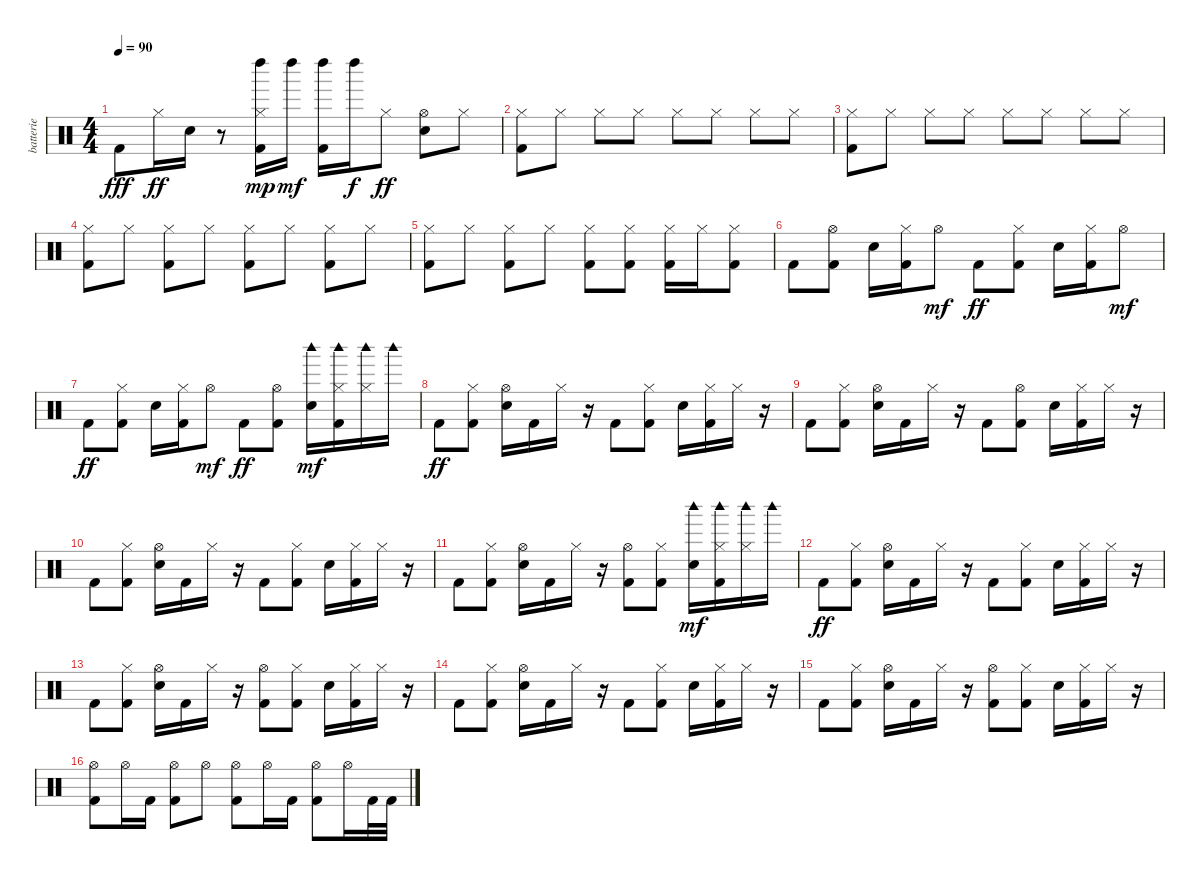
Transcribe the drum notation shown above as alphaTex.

\track ("batterie" "batterie") {instrument percussion}
\staff {score}
\articulation defaults
\ts (4 4)
\tempo 90
\clef neutral
\ks c "Kick (hit) 2".8{dy fff} "Hi-Hat (closed)".16{dy ff} "Electric Snare (hit)".16
r.8 ("Kick (hit) 2" "Hi-Hat (closed)" "Left Maraca (hit)").16{dy mp} "Left Maraca (hit)".16{dy mf} ("Kick (hit) 2" "Left Maraca (hit)").16 "Left Maraca (hit)".16{dy f} "Hi-Hat (closed)".8{dy ff} ("Electric Snare (hit)" "Hi-Hat (open)").8 "Hi-Hat (closed)".8 |
("Kick (hit) 2" "Hi-Hat (closed)").8 "Hi-Hat (closed)".8 "Hi-Hat (closed)".8 "Hi-Hat (closed)".8 "Hi-Hat (closed)".8 "Hi-Hat (closed)".8 "Hi-Hat (closed)".8 "Hi-Hat (closed)".8 |
("Kick (hit) 2" "Hi-Hat (closed)").8 "Hi-Hat (closed)".8 "Hi-Hat (closed)".8 "Hi-Hat (closed)".8 "Hi-Hat (closed)".8 "Hi-Hat (closed)".8 "Hi-Hat (closed)".8 "Hi-Hat (closed)".8 |
("Kick (hit) 2" "Hi-Hat (closed)").8 "Hi-Hat (closed)".8 ("Kick (hit) 2" "Hi-Hat (closed)").8 "Hi-Hat (closed)".8 ("Kick (hit) 2" "Hi-Hat (closed)").8 "Hi-Hat (closed)".8 ("Kick (hit) 2" "Hi-Hat (closed)").8 "Hi-Hat (closed)".8 |
("Kick (hit) 2" "Hi-Hat (closed)").8 "Hi-Hat (closed)".8 ("Kick (hit) 2" "Hi-Hat (closed)").8 "Hi-Hat (closed)".8 ("Kick (hit) 2" "Hi-Hat (closed)").8 ("Kick (hit) 2" "Hi-Hat (closed)").8 ("Kick (hit) 2" "Hi-Hat (closed)").16 "Hi-Hat (closed)".16 ("Kick (hit) 2" "Hi-Hat (closed)").8 |
"Kick (hit) 2".8 ("Hi-Hat (open)" "Kick (hit) 2").8 "Snare (hit) 2".16 ("Kick (hit) 2" "Hi-Hat (closed)").16 "Hi-Hat (open)".8{dy mf} "Kick (hit) 2".8{dy ff} ("Kick (hit) 2" "Hi-Hat (closed)").8 "Snare (hit) 2".16 ("Kick (hit) 2" "Hi-Hat (closed)").16 "Hi-Hat (open)".8{dy mf} |
"Kick (hit) 2".8{dy ff} ("Kick (hit) 2" "Hi-Hat (closed)").8 "Snare (hit) 2".16 ("Kick (hit) 2" "Hi-Hat (closed)").16 "Hi-Hat (open)".8{dy mf} "Kick (hit) 2".8{dy ff} ("Hi-Hat (open)" "Kick (hit) 2").8 ("Snare (hit) 2" "Woodblock high (hit)").16{dy mf} ("Kick (hit) 2" "Hi-Hat (closed)" "Woodblock high (hit)").16 ("Hi-Hat (closed)" "Woodblock high (hit)").16 "Woodblock high (hit)".16 |
"Kick (hit) 2".8{dy ff} ("Kick (hit) 2" "Hi-Hat (closed)").8 ("Hi-Hat (open)" "Snare (hit) 2").16 "Kick (hit) 2".16 "Hi-Hat (closed)".16 r.16 "Kick (hit) 2".8 ("Kick (hit) 2" "Hi-Hat (closed)").8 "Snare (hit) 2".16 ("Kick (hit) 2" "Hi-Hat (closed)").16 "Hi-Hat (closed)".16 r.16 |
"Kick (hit) 2".8 ("Kick (hit) 2" "Hi-Hat (closed)").8 ("Hi-Hat (open)" "Snare (hit) 2").16 "Kick (hit) 2".16 "Hi-Hat (closed)".16 r.16 "Kick (hit) 2".8 ("Hi-Hat (open)" "Kick (hit) 2").8 "Snare (hit) 2".16 ("Kick (hit) 2" "Hi-Hat (closed)").16 "Hi-Hat (closed)".16 r.16 |
"Kick (hit) 2".8 ("Kick (hit) 2" "Hi-Hat (closed)").8 ("Hi-Hat (open)" "Snare (hit) 2").16 "Kick (hit) 2".16 "Hi-Hat (closed)".16 r.16 "Kick (hit) 2".8 ("Kick (hit) 2" "Hi-Hat (closed)").8 "Snare (hit) 2".16 ("Kick (hit) 2" "Hi-Hat (closed)").16 "Hi-Hat (closed)".16 r.16 |
"Kick (hit) 2".8 ("Kick (hit) 2" "Hi-Hat (closed)").8 ("Hi-Hat (open)" "Snare (hit) 2").16 "Kick (hit) 2".16 "Hi-Hat (closed)".16 r.16 ("Hi-Hat (open)" "Kick (hit) 2").8 ("Kick (hit) 2" "Hi-Hat (closed)").8 ("Snare (hit) 2" "Woodblock high (hit)").16{dy mf} ("Kick (hit) 2" "Hi-Hat (closed)" "Woodblock high (hit)").16 ("Hi-Hat (closed)" "Woodblock high (hit)").16 "Woodblock high (hit)".16 |
"Kick (hit) 2".8{dy ff} ("Kick (hit) 2" "Hi-Hat (closed)").8 ("Hi-Hat (open)" "Snare (hit) 2").16 "Kick (hit) 2".16 "Hi-Hat (closed)".16 r.16 "Kick (hit) 2".8 ("Kick (hit) 2" "Hi-Hat (closed)").8 "Snare (hit) 2".16 ("Kick (hit) 2" "Hi-Hat (closed)").16 "Hi-Hat (closed)".16 r.16 |
"Kick (hit) 2".8 ("Kick (hit) 2" "Hi-Hat (closed)").8 ("Hi-Hat (open)" "Snare (hit) 2").16 "Kick (hit) 2".16 "Hi-Hat (closed)".16 r.16 ("Hi-Hat (open)" "Kick (hit) 2").8 ("Kick (hit) 2" "Hi-Hat (closed)").8 "Snare (hit) 2".16 ("Kick (hit) 2" "Hi-Hat (closed)").16 "Hi-Hat (closed)".16 r.16 |
"Kick (hit) 2".8 ("Kick (hit) 2" "Hi-Hat (closed)").8 ("Hi-Hat (open)" "Snare (hit) 2").16 "Kick (hit) 2".16 "Hi-Hat (closed)".16 r.16 "Kick (hit) 2".8 ("Kick (hit) 2" "Hi-Hat (closed)").8 "Snare (hit) 2".16 ("Kick (hit) 2" "Hi-Hat (closed)").16 "Hi-Hat (closed)".16 r.16 |
"Kick (hit) 2".8 ("Kick (hit) 2" "Hi-Hat (closed)").8 ("Hi-Hat (open)" "Snare (hit) 2").16 "Kick (hit) 2".16 "Hi-Hat (closed)".16 r.16 ("Hi-Hat (open)" "Kick (hit) 2").8 ("Kick (hit) 2" "Hi-Hat (closed)").8 "Snare (hit) 2".16 ("Kick (hit) 2" "Hi-Hat (closed)").16 "Hi-Hat (closed)".16 r.16 |
("Kick (hit) 2" "Hi-Hat (open)").8 "Hi-Hat (open)".16 "Kick (hit) 2".16 ("Kick (hit) 2" "Hi-Hat (open)").8 "Hi-Hat (open)".8 ("Kick (hit) 2" "Hi-Hat (open)").8 "Hi-Hat (open)".16 "Kick (hit) 2".16 ("Kick (hit) 2" "Hi-Hat (open)").8 "Hi-Hat (open)".16 "Kick (hit) 2".32 "Kick (hit) 2".32
